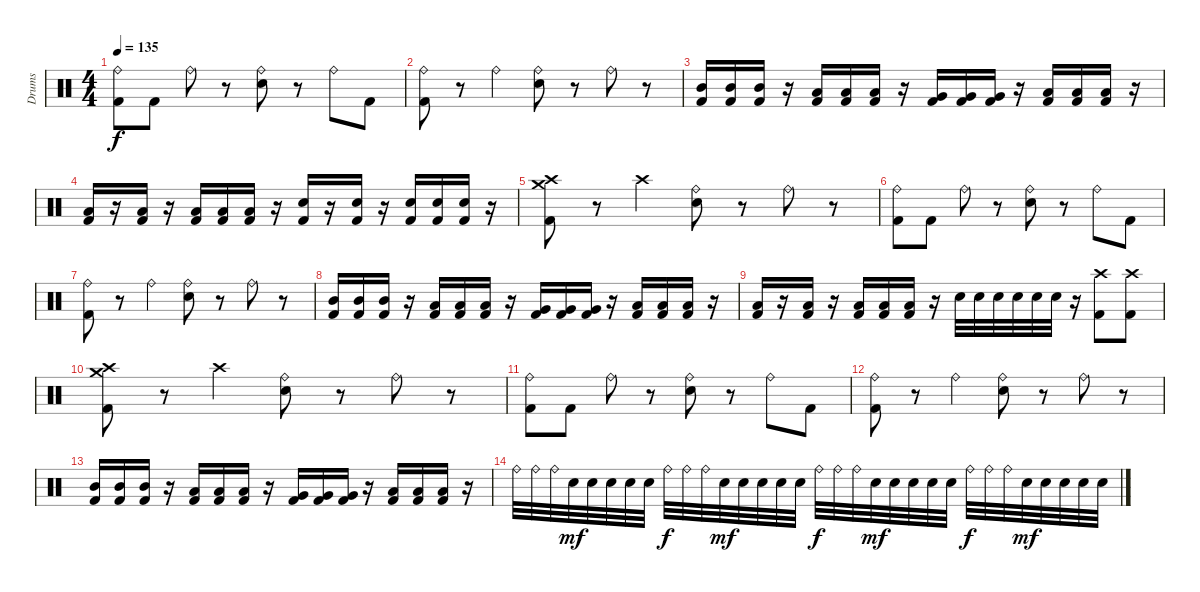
\track ("Drums" "Drums") {instrument percussion}
\staff {score}
\articulation defaults
\ts (4 4)
\tempo 135
\clef neutral
\ks c
("Ride (bell)" "Kick (hit) 2").8{dy f} "Kick (hit) 2".8 "Ride (bell)".8 r.8 ("Ride (bell)" "Electric Snare (hit)").8 r.8 "Ride (bell)".8 "Kick (hit) 2".8 |
("Ride (bell)" "Kick (hit) 2").8 r.8 "Ride (bell)".4 ("Ride (bell)" "Electric Snare (hit)").8 r.8 "Ride (bell)".8 r.8 |
("Mid Tom (hit)" "Kick (hit) 2").16 ("Mid Tom (hit)" "Kick (hit) 2").16 ("Mid Tom (hit)" "Kick (hit) 2").16 r.16 ("Low Tom (hit)" "Kick (hit) 2").16 ("Low Tom (hit)" "Kick (hit) 2").16 ("Low Tom (hit)" "Kick (hit) 2").16 r.16 ("Very Low Tom (hit)" "Kick (hit) 2").16 ("Very Low Tom (hit)" "Kick (hit) 2").16 ("Very Low Tom (hit)" "Kick (hit) 2").16 r.16 ("Low Floor Tom (hit)" "Kick (hit) 2").16 ("Low Floor Tom (hit)" "Kick (hit) 2").16 ("Low Floor Tom (hit)" "Kick (hit) 2").16 r.16 |
("Low Floor Tom (hit)" "Kick (hit) 2").16 r.16 ("Low Floor Tom (hit)" "Kick (hit) 2").16 r.16 ("Low Floor Tom (hit)" "Kick (hit) 2").16 ("Low Floor Tom (hit)" "Kick (hit) 2").16 ("Low Floor Tom (hit)" "Kick (hit) 2").16 r.16 ("Electric Snare (hit)" "Kick (hit) 2").16 r.16 ("Electric Snare (hit)" "Kick (hit) 2").16 r.16 ("Electric Snare (hit)" "Kick (hit) 2").16 ("Electric Snare (hit)" "Kick (hit) 2").16 ("Electric Snare (hit)" "Kick (hit) 2").16 r.16 |
("Crash high (hit)" "Crash medium (hit)" "Kick (hit) 2").8 r.8 "Crash high (hit)".4 ("Ride (bell)" "Electric Snare (hit)").8 r.8 "Ride (bell)".8 r.8 |
("Ride (bell)" "Kick (hit) 2").8 "Kick (hit) 2".8 "Ride (bell)".8 r.8 ("Ride (bell)" "Electric Snare (hit)").8 r.8 "Ride (bell)".8 "Kick (hit) 2".8 |
("Ride (bell)" "Kick (hit) 2").8 r.8 "Ride (bell)".4 ("Ride (bell)" "Electric Snare (hit)").8 r.8 "Ride (bell)".8 r.8 |
("Mid Tom (hit)" "Kick (hit) 2").16 ("Mid Tom (hit)" "Kick (hit) 2").16 ("Mid Tom (hit)" "Kick (hit) 2").16 r.16 ("Low Tom (hit)" "Kick (hit) 2").16 ("Low Tom (hit)" "Kick (hit) 2").16 ("Low Tom (hit)" "Kick (hit) 2").16 r.16 ("Very Low Tom (hit)" "Kick (hit) 2").16 ("Very Low Tom (hit)" "Kick (hit) 2").16 ("Very Low Tom (hit)" "Kick (hit) 2").16 r.16 ("Low Floor Tom (hit)" "Kick (hit) 2").16 ("Low Floor Tom (hit)" "Kick (hit) 2").16 ("Low Floor Tom (hit)" "Kick (hit) 2").16 r.16 |
("Low Floor Tom (hit)" "Kick (hit) 2").16 r.16 ("Low Floor Tom (hit)" "Kick (hit) 2").16 r.16 ("Low Floor Tom (hit)" "Kick (hit) 2").16 ("Low Floor Tom (hit)" "Kick (hit) 2").16 ("Low Floor Tom (hit)" "Kick (hit) 2").16 r.16 "Electric Snare (hit)".32 "Electric Snare (hit)".32 "Electric Snare (hit)".32 "Electric Snare (hit)".32 "Electric Snare (hit)".32 "Electric Snare (hit)".32 r.16 ("Crash high (hit)" "Kick (hit) 2").8 ("Crash high (hit)" "Kick (hit) 2").8 |
("Crash high (hit)" "Crash medium (hit)" "Kick (hit) 2").8 r.8 "Crash high (hit)".4 ("Ride (bell)" "Electric Snare (hit)").8 r.8 "Ride (bell)".8 r.8 |
("Ride (bell)" "Kick (hit) 2").8 "Kick (hit) 2".8 "Ride (bell)".8 r.8 ("Ride (bell)" "Electric Snare (hit)").8 r.8 "Ride (bell)".8 "Kick (hit) 2".8 |
("Ride (bell)" "Kick (hit) 2").8 r.8 "Ride (bell)".4 ("Ride (bell)" "Electric Snare (hit)").8 r.8 "Ride (bell)".8 r.8 |
("Mid Tom (hit)" "Kick (hit) 2").16 ("Mid Tom (hit)" "Kick (hit) 2").16 ("Mid Tom (hit)" "Kick (hit) 2").16 r.16 ("Low Tom (hit)" "Kick (hit) 2").16 ("Low Tom (hit)" "Kick (hit) 2").16 ("Low Tom (hit)" "Kick (hit) 2").16 r.16 ("Very Low Tom (hit)" "Kick (hit) 2").16 ("Very Low Tom (hit)" "Kick (hit) 2").16 ("Very Low Tom (hit)" "Kick (hit) 2").16 r.16 ("Low Floor Tom (hit)" "Kick (hit) 2").16 ("Low Floor Tom (hit)" "Kick (hit) 2").16 ("Low Floor Tom (hit)" "Kick (hit) 2").16 r.16 |
"Ride (bell)".32 "Ride (bell)".32 "Ride (bell)".32 "Electric Snare (hit)".32{dy mf} "Electric Snare (hit)".32 "Electric Snare (hit)".32 "Electric Snare (hit)".32 "Electric Snare (hit)".32 "Ride (bell)".32{dy f} "Ride (bell)".32 "Ride (bell)".32 "Electric Snare (hit)".32{dy mf} "Electric Snare (hit)".32 "Electric Snare (hit)".32 "Electric Snare (hit)".32 "Electric Snare (hit)".32 "Ride (bell)".32{dy f} "Ride (bell)".32 "Ride (bell)".32 "Electric Snare (hit)".32{dy mf} "Electric Snare (hit)".32 "Electric Snare (hit)".32 "Electric Snare (hit)".32 "Electric Snare (hit)".32 "Ride (bell)".32{dy f} "Ride (bell)".32 "Ride (bell)".32 "Electric Snare (hit)".32{dy mf} "Electric Snare (hit)".32 "Electric Snare (hit)".32 "Electric Snare (hit)".32 "Electric Snare (hit)".32
